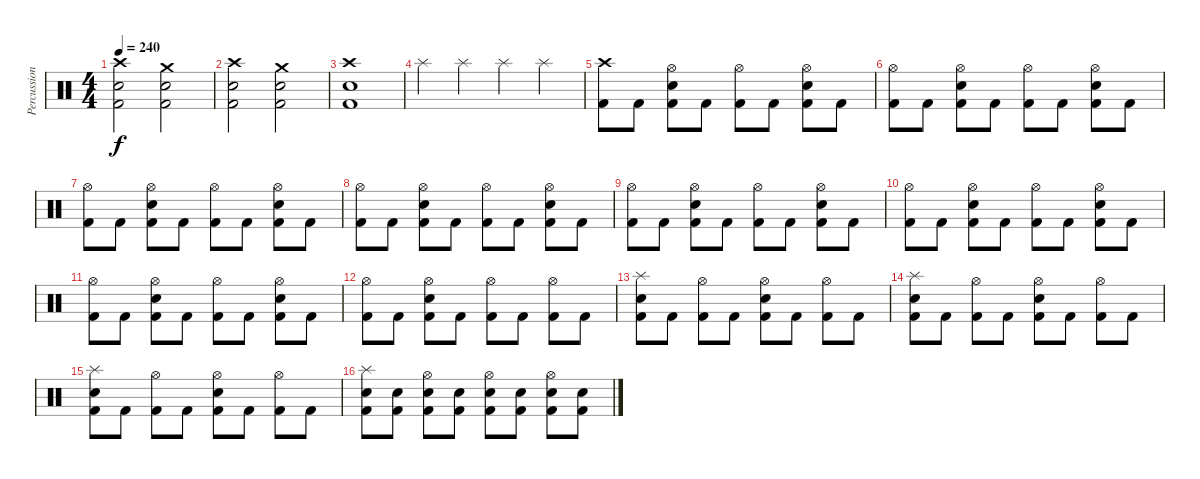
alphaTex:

\track ("Percussion" "Percussion") {instrument percussion}
\staff {score}
\articulation defaults
\ts (4 4)
\tempo 240
\clef neutral
\ks c
("Kick (hit) 2" "Electric Snare (hit)" "Crash high (hit)").2{dy f} ("Kick (hit) 2" "Electric Snare (hit)" "Crash medium (hit)").2 |
("Kick (hit) 2" "Electric Snare (hit)" "Crash high (hit)").2 ("Kick (hit) 2" "Electric Snare (hit)" "Crash medium (hit)").2 |
("Kick (hit) 2" "Electric Snare (hit)" "Crash high (hit)").1 |
"Splash (hit)".4 "Splash (hit)".4 "Splash (hit)".4 "Splash (hit)".4 |
("Kick (hit) 2" "Crash high (hit)").8 "Kick (hit) 2".8 ("Kick (hit) 2" "Electric Snare (hit)" "Hi-Hat (open)").8 "Kick (hit) 2".8 ("Kick (hit) 2" "Hi-Hat (open)").8 "Kick (hit) 2".8 ("Kick (hit) 2" "Electric Snare (hit)" "Hi-Hat (open)").8 "Kick (hit) 2".8 |
("Kick (hit) 2" "Hi-Hat (open)").8 "Kick (hit) 2".8 ("Kick (hit) 2" "Electric Snare (hit)" "Hi-Hat (open)").8 "Kick (hit) 2".8 ("Kick (hit) 2" "Hi-Hat (open)").8 "Kick (hit) 2".8 ("Kick (hit) 2" "Electric Snare (hit)" "Hi-Hat (open)").8 "Kick (hit) 2".8 |
("Kick (hit) 2" "Hi-Hat (open)").8 "Kick (hit) 2".8 ("Kick (hit) 2" "Electric Snare (hit)" "Hi-Hat (open)").8 "Kick (hit) 2".8 ("Kick (hit) 2" "Hi-Hat (open)").8 "Kick (hit) 2".8 ("Kick (hit) 2" "Electric Snare (hit)" "Hi-Hat (open)").8 "Kick (hit) 2".8 |
("Kick (hit) 2" "Hi-Hat (open)").8 "Kick (hit) 2".8 ("Kick (hit) 2" "Electric Snare (hit)" "Hi-Hat (open)").8 "Kick (hit) 2".8 ("Kick (hit) 2" "Hi-Hat (open)").8 "Kick (hit) 2".8 ("Kick (hit) 2" "Electric Snare (hit)" "Hi-Hat (open)").8 "Kick (hit) 2".8 |
("Kick (hit) 2" "Hi-Hat (open)").8 "Kick (hit) 2".8 ("Kick (hit) 2" "Electric Snare (hit)" "Hi-Hat (open)").8 "Kick (hit) 2".8 ("Kick (hit) 2" "Hi-Hat (open)").8 "Kick (hit) 2".8 ("Kick (hit) 2" "Electric Snare (hit)" "Hi-Hat (open)").8 "Kick (hit) 2".8 |
("Kick (hit) 2" "Hi-Hat (open)").8 "Kick (hit) 2".8 ("Kick (hit) 2" "Electric Snare (hit)" "Hi-Hat (open)").8 "Kick (hit) 2".8 ("Kick (hit) 2" "Hi-Hat (open)").8 "Kick (hit) 2".8 ("Kick (hit) 2" "Electric Snare (hit)" "Hi-Hat (open)").8 "Kick (hit) 2".8 |
("Kick (hit) 2" "Hi-Hat (open)").8 "Kick (hit) 2".8 ("Kick (hit) 2" "Electric Snare (hit)" "Hi-Hat (open)").8 "Kick (hit) 2".8 ("Kick (hit) 2" "Hi-Hat (open)").8 "Kick (hit) 2".8 ("Kick (hit) 2" "Electric Snare (hit)" "Hi-Hat (open)").8 "Kick (hit) 2".8 |
("Kick (hit) 2" "Hi-Hat (open)").8 "Kick (hit) 2".8 ("Kick (hit) 2" "Electric Snare (hit)" "Hi-Hat (open)").8 "Kick (hit) 2".8 ("Kick (hit) 2" "Hi-Hat (open)").8 "Kick (hit) 2".8 ("Kick (hit) 2" "Hi-Hat (open)").8 "Kick (hit) 2".8 |
("Kick (hit) 2" "Electric Snare (hit)" "Splash (hit)").8 "Kick (hit) 2".8 ("Kick (hit) 2" "Hi-Hat (open)").8 "Kick (hit) 2".8 ("Kick (hit) 2" "Electric Snare (hit)" "Hi-Hat (open)").8 "Kick (hit) 2".8 ("Kick (hit) 2" "Hi-Hat (open)").8 "Kick (hit) 2".8 |
("Kick (hit) 2" "Electric Snare (hit)" "Splash (hit)").8 "Kick (hit) 2".8 ("Kick (hit) 2" "Hi-Hat (open)").8 "Kick (hit) 2".8 ("Kick (hit) 2" "Electric Snare (hit)" "Hi-Hat (open)").8 "Kick (hit) 2".8 ("Kick (hit) 2" "Hi-Hat (open)").8 "Kick (hit) 2".8 |
("Kick (hit) 2" "Electric Snare (hit)" "Splash (hit)").8 "Kick (hit) 2".8 ("Kick (hit) 2" "Hi-Hat (open)").8 "Kick (hit) 2".8 ("Kick (hit) 2" "Electric Snare (hit)" "Hi-Hat (open)").8 "Kick (hit) 2".8 ("Kick (hit) 2" "Hi-Hat (open)").8 "Kick (hit) 2".8 |
("Kick (hit) 2" "Electric Snare (hit)" "Splash (hit)").8 ("Kick (hit) 2" "Electric Snare (hit)").8 ("Kick (hit) 2" "Electric Snare (hit)" "Hi-Hat (open)").8 ("Kick (hit) 2" "Electric Snare (hit)").8 ("Kick (hit) 2" "Electric Snare (hit)" "Hi-Hat (open)").8 ("Kick (hit) 2" "Electric Snare (hit)").8 ("Kick (hit) 2" "Electric Snare (hit)" "Hi-Hat (open)").8 ("Kick (hit) 2" "Electric Snare (hit)").8
